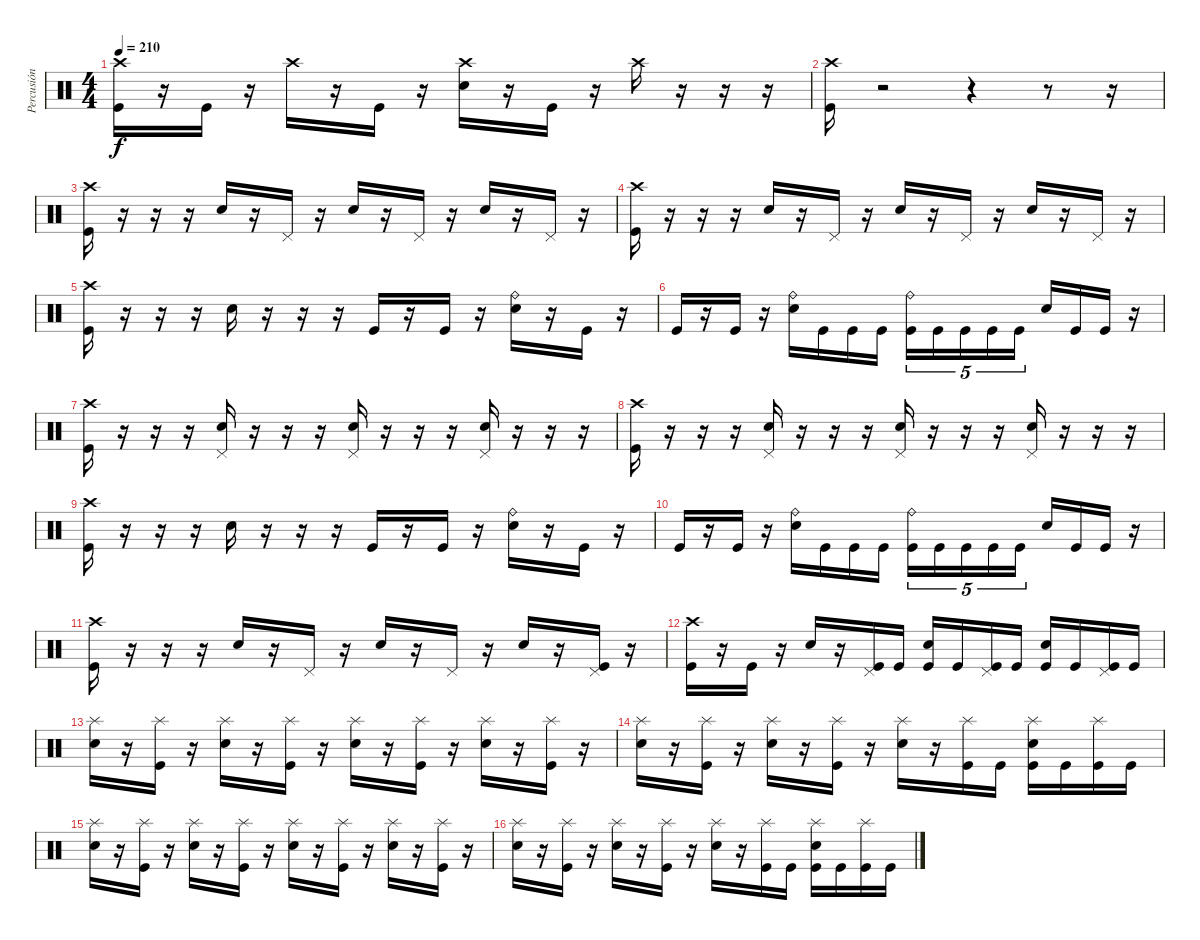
\track ("Percusión" "Percusión") {instrument percussion}
\staff {score}
\articulation defaults
\ts (4 4)
\tempo 210
\clef neutral
\ks c
("Crash high (hit)" "Kick (hit)").16{dy f} r.16 "Kick (hit)".16 r.16 "Crash high (hit)".16 r.16 "Kick (hit)".16 r.16 ("Crash high (hit)" "Snare (hit) 2").16 r.16 "Kick (hit)".16 r.16 "Crash high (hit)".16 r.16 r.16 r.16 |
("Crash high (hit)" "Kick (hit)").16 r.2 r.4 r.8 r.16 |
("Crash high (hit)" "Kick (hit)").16 r.16 r.16 r.16 "Snare (hit) 2".16 r.16 "Pedal Hi-Hat (hit)".16 r.16 "Snare (hit) 2".16 r.16 "Pedal Hi-Hat (hit)".16 r.16 "Snare (hit) 2".16 r.16 "Pedal Hi-Hat (hit)".16 r.16 |
("Crash high (hit)" "Kick (hit)").16 r.16 r.16 r.16 "Snare (hit) 2".16 r.16 "Pedal Hi-Hat (hit)".16 r.16 "Snare (hit) 2".16 r.16 "Pedal Hi-Hat (hit)".16 r.16 "Snare (hit) 2".16 r.16 "Pedal Hi-Hat (hit)".16 r.16 |
("Crash high (hit)" "Kick (hit)").16 r.16 r.16 r.16 "Snare (hit) 2".16 r.16 r.16 r.16 "Kick (hit)".16 r.16 "Kick (hit)".16 r.16 ("Ride (bell)" "Snare (hit) 2").16 r.16 "Kick (hit)".16 r.16 |
"Kick (hit)".16 r.16 "Kick (hit)".16 r.16 ("Ride (bell)" "Snare (hit) 2").16 "Kick (hit)".16 "Kick (hit)".16 "Kick (hit)".16 ("Ride (bell)" "Kick (hit)").16{tu (5 4)} "Kick (hit)".16{tu (5 4)} "Kick (hit)".16{tu (5 4)} "Kick (hit)".16{tu (5 4)} "Kick (hit)".16{tu (5 4)} "Snare (hit) 2".16 "Kick (hit)".16 "Kick (hit)".16 r.16 |
("Crash high (hit)" "Kick (hit)").16 r.16 r.16 r.16 ("Pedal Hi-Hat (hit)" "Snare (hit) 2").16 r.16 r.16 r.16 ("Pedal Hi-Hat (hit)" "Snare (hit) 2").16 r.16 r.16 r.16 ("Pedal Hi-Hat (hit)" "Snare (hit) 2").16 r.16 r.16 r.16 |
("Crash high (hit)" "Kick (hit)").16 r.16 r.16 r.16 ("Pedal Hi-Hat (hit)" "Snare (hit) 2").16 r.16 r.16 r.16 ("Pedal Hi-Hat (hit)" "Snare (hit) 2").16 r.16 r.16 r.16 ("Pedal Hi-Hat (hit)" "Snare (hit) 2").16 r.16 r.16 r.16 |
("Crash high (hit)" "Kick (hit)").16 r.16 r.16 r.16 "Snare (hit) 2".16 r.16 r.16 r.16 "Kick (hit)".16 r.16 "Kick (hit)".16 r.16 ("Ride (bell)" "Snare (hit) 2").16 r.16 "Kick (hit)".16 r.16 |
"Kick (hit)".16 r.16 "Kick (hit)".16 r.16 ("Ride (bell)" "Snare (hit) 2").16 "Kick (hit)".16 "Kick (hit)".16 "Kick (hit)".16 ("Ride (bell)" "Kick (hit)").16{tu (5 4)} "Kick (hit)".16{tu (5 4)} "Kick (hit)".16{tu (5 4)} "Kick (hit)".16{tu (5 4)} "Kick (hit)".16{tu (5 4)} "Snare (hit) 2".16 "Kick (hit)".16 "Kick (hit)".16 r.16 |
("Crash high (hit)" "Kick (hit)").16 r.16 r.16 r.16 "Snare (hit) 2".16 r.16 "Pedal Hi-Hat (hit)".16 r.16 "Snare (hit) 2".16 r.16 "Pedal Hi-Hat (hit)".16 r.16 "Snare (hit) 2".16 r.16 ("Pedal Hi-Hat (hit)" "Kick (hit)").16 r.16 |
("Crash high (hit)" "Kick (hit)").16 r.16 "Kick (hit)".16 r.16 "Snare (hit) 2".16 r.16 ("Pedal Hi-Hat (hit)" "Kick (hit)").16 "Kick (hit)".16 ("Snare (hit) 2" "Kick (hit)").16 "Kick (hit)".16 ("Pedal Hi-Hat (hit)" "Kick (hit)").16 "Kick (hit)".16 ("Snare (hit) 2" "Kick (hit)").16 "Kick (hit)".16 ("Pedal Hi-Hat (hit)" "Kick (hit)").16 "Kick (hit)".16 |
("Splash (hit)" "Snare (hit) 2").16 r.16 ("Splash (hit)" "Kick (hit)").16 r.16 ("Splash (hit)" "Snare (hit) 2").16 r.16 ("Splash (hit)" "Kick (hit)").16 r.16 ("Splash (hit)" "Snare (hit) 2").16 r.16 ("Splash (hit)" "Kick (hit)").16 r.16 ("Splash (hit)" "Snare (hit) 2").16 r.16 ("Splash (hit)" "Kick (hit)").16 r.16 |
("Splash (hit)" "Snare (hit) 2").16 r.16 ("Splash (hit)" "Kick (hit)").16 r.16 ("Splash (hit)" "Snare (hit) 2").16 r.16 ("Splash (hit)" "Kick (hit)").16 r.16 ("Splash (hit)" "Snare (hit) 2").16 r.16 ("Splash (hit)" "Kick (hit)").16 "Kick (hit)".16 ("Splash (hit)" "Snare (hit) 2" "Kick (hit)").16 "Kick (hit)".16 ("Splash (hit)" "Kick (hit)").16 "Kick (hit)".16 |
("Splash (hit)" "Snare (hit) 2").16 r.16 ("Splash (hit)" "Kick (hit)").16 r.16 ("Splash (hit)" "Snare (hit) 2").16 r.16 ("Splash (hit)" "Kick (hit)").16 r.16 ("Splash (hit)" "Snare (hit) 2").16 r.16 ("Splash (hit)" "Kick (hit)").16 r.16 ("Splash (hit)" "Snare (hit) 2").16 r.16 ("Splash (hit)" "Kick (hit)").16 r.16 |
("Splash (hit)" "Snare (hit) 2").16 r.16 ("Splash (hit)" "Kick (hit)").16 r.16 ("Splash (hit)" "Snare (hit) 2").16 r.16 ("Splash (hit)" "Kick (hit)").16 r.16 ("Splash (hit)" "Snare (hit) 2").16 r.16 ("Splash (hit)" "Kick (hit)").16 "Kick (hit)".16 ("Splash (hit)" "Snare (hit) 2" "Kick (hit)").16 "Kick (hit)".16 ("Splash (hit)" "Kick (hit)").16 "Kick (hit)".16
